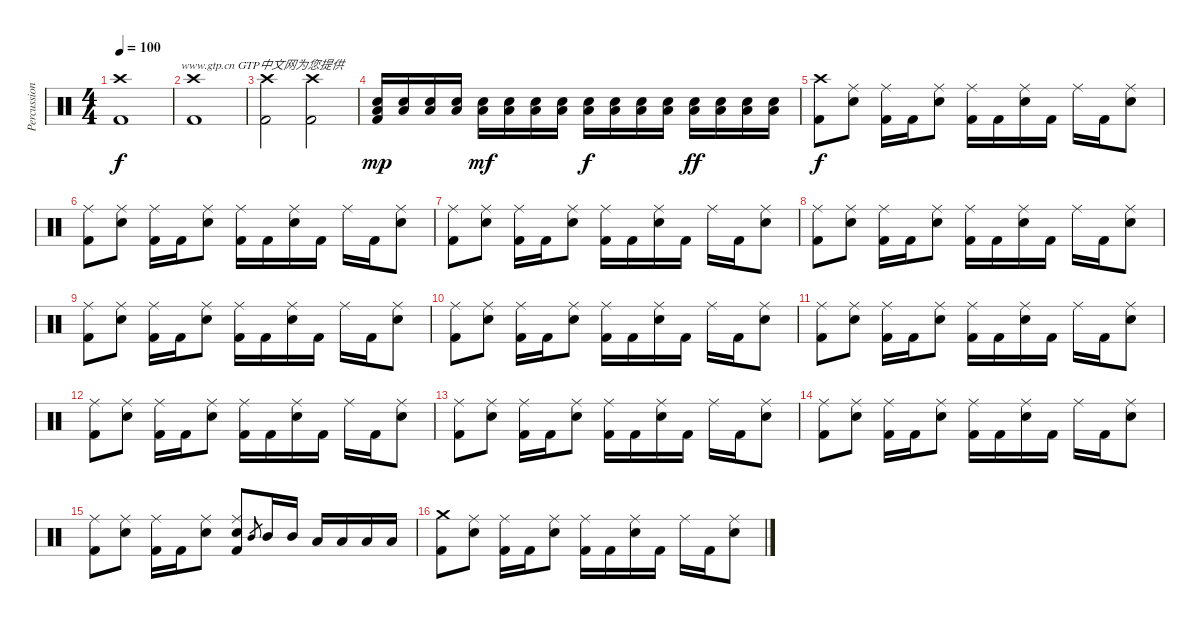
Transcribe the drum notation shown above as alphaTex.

\track ("Percussion" "Percussion") {instrument percussion}
\staff {score}
\articulation defaults
\ts (4 4)
\tempo 100
\clef neutral
\ks c
("Crash high (hit)" "Kick (hit) 2").1{txt "                    www.gtp.cn GTP中文网为您提供" dy f} |
("Crash high (hit)" "Kick (hit) 2").1 |
("Crash high (hit)" "Kick (hit) 2").2 ("Crash high (hit)" "Kick (hit) 2").2 |
("Snare (hit) 2" "Low Tom (hit)" "Kick (hit) 2").16{dy mp} ("Snare (hit) 2" "Low Tom (hit)").16 ("Snare (hit) 2" "Low Tom (hit)").16 ("Snare (hit) 2" "Low Tom (hit)").16 ("Snare (hit) 2" "Low Tom (hit)").16{dy mf} ("Snare (hit) 2" "Low Tom (hit)").16 ("Snare (hit) 2" "Low Tom (hit)").16 ("Snare (hit) 2" "Low Tom (hit)").16 ("Snare (hit) 2" "Low Tom (hit)").16{dy f} ("Snare (hit) 2" "Low Tom (hit)").16 ("Snare (hit) 2" "Low Tom (hit)").16 ("Snare (hit) 2" "Low Tom (hit)").16 ("Snare (hit) 2" "Low Tom (hit)").16{dy ff} ("Snare (hit) 2" "Low Tom (hit)").16 ("Snare (hit) 2" "Low Tom (hit)").16 ("Snare (hit) 2" "Low Tom (hit)").16 |
("Crash high (hit)" "Kick (hit) 2").8{dy f} ("Ride (middle)" "Electric Snare (hit)").8 ("Ride (middle)" "Kick (hit) 2").16 "Kick (hit) 2".16 ("Ride (middle)" "Electric Snare (hit)").8 ("Ride (middle)" "Kick (hit) 2").16 "Kick (hit) 2".16 ("Ride (middle)" "Electric Snare (hit)").16 "Kick (hit) 2".16 "Ride (middle)".16 "Kick (hit) 2".16 ("Ride (middle)" "Electric Snare (hit)").8 |
("Ride (middle)" "Kick (hit) 2").8 ("Ride (middle)" "Electric Snare (hit)").8 ("Ride (middle)" "Kick (hit) 2").16 "Kick (hit) 2".16 ("Ride (middle)" "Electric Snare (hit)").8 ("Ride (middle)" "Kick (hit) 2").16 "Kick (hit) 2".16 ("Ride (middle)" "Electric Snare (hit)").16 "Kick (hit) 2".16 "Ride (middle)".16 "Kick (hit) 2".16 ("Ride (middle)" "Electric Snare (hit)").8 |
("Ride (middle)" "Kick (hit) 2").8 ("Ride (middle)" "Electric Snare (hit)").8 ("Ride (middle)" "Kick (hit) 2").16 "Kick (hit) 2".16 ("Ride (middle)" "Electric Snare (hit)").8 ("Ride (middle)" "Kick (hit) 2").16 "Kick (hit) 2".16 ("Ride (middle)" "Electric Snare (hit)").16 "Kick (hit) 2".16 "Ride (middle)".16 "Kick (hit) 2".16 ("Ride (middle)" "Electric Snare (hit)").8 |
("Ride (middle)" "Kick (hit) 2").8 ("Ride (middle)" "Electric Snare (hit)").8 ("Ride (middle)" "Kick (hit) 2").16 "Kick (hit) 2".16 ("Ride (middle)" "Electric Snare (hit)").8 ("Ride (middle)" "Kick (hit) 2").16 "Kick (hit) 2".16 ("Ride (middle)" "Electric Snare (hit)").16 "Kick (hit) 2".16 "Ride (middle)".16 "Kick (hit) 2".16 ("Ride (middle)" "Electric Snare (hit)").8 |
("Ride (middle)" "Kick (hit) 2").8 ("Ride (middle)" "Electric Snare (hit)").8 ("Ride (middle)" "Kick (hit) 2").16 "Kick (hit) 2".16 ("Ride (middle)" "Electric Snare (hit)").8 ("Ride (middle)" "Kick (hit) 2").16 "Kick (hit) 2".16 ("Ride (middle)" "Electric Snare (hit)").16 "Kick (hit) 2".16 "Ride (middle)".16 "Kick (hit) 2".16 ("Ride (middle)" "Electric Snare (hit)").8 |
("Ride (middle)" "Kick (hit) 2").8 ("Ride (middle)" "Electric Snare (hit)").8 ("Ride (middle)" "Kick (hit) 2").16 "Kick (hit) 2".16 ("Ride (middle)" "Electric Snare (hit)").8 ("Ride (middle)" "Kick (hit) 2").16 "Kick (hit) 2".16 ("Ride (middle)" "Electric Snare (hit)").16 "Kick (hit) 2".16 "Ride (middle)".16 "Kick (hit) 2".16 ("Ride (middle)" "Electric Snare (hit)").8 |
("Ride (middle)" "Kick (hit) 2").8 ("Ride (middle)" "Electric Snare (hit)").8 ("Ride (middle)" "Kick (hit) 2").16 "Kick (hit) 2".16 ("Ride (middle)" "Electric Snare (hit)").8 ("Ride (middle)" "Kick (hit) 2").16 "Kick (hit) 2".16 ("Ride (middle)" "Electric Snare (hit)").16 "Kick (hit) 2".16 "Ride (middle)".16 "Kick (hit) 2".16 ("Ride (middle)" "Electric Snare (hit)").8 |
("Ride (middle)" "Kick (hit) 2").8 ("Ride (middle)" "Electric Snare (hit)").8 ("Ride (middle)" "Kick (hit) 2").16 "Kick (hit) 2".16 ("Ride (middle)" "Electric Snare (hit)").8 ("Ride (middle)" "Kick (hit) 2").16 "Kick (hit) 2".16 ("Ride (middle)" "Electric Snare (hit)").16 "Kick (hit) 2".16 "Ride (middle)".16 "Kick (hit) 2".16 ("Ride (middle)" "Electric Snare (hit)").8 |
("Ride (middle)" "Kick (hit) 2").8 ("Ride (middle)" "Electric Snare (hit)").8 ("Ride (middle)" "Kick (hit) 2").16 "Kick (hit) 2".16 ("Ride (middle)" "Electric Snare (hit)").8 ("Ride (middle)" "Kick (hit) 2").16 "Kick (hit) 2".16 ("Ride (middle)" "Electric Snare (hit)").16 "Kick (hit) 2".16 "Ride (middle)".16 "Kick (hit) 2".16 ("Ride (middle)" "Electric Snare (hit)").8 |
("Ride (middle)" "Kick (hit) 2").8 ("Ride (middle)" "Electric Snare (hit)").8 ("Ride (middle)" "Kick (hit) 2").16 "Kick (hit) 2".16 ("Ride (middle)" "Electric Snare (hit)").8 ("Ride (middle)" "Kick (hit) 2").16 "Kick (hit) 2".16 ("Ride (middle)" "Electric Snare (hit)").16 "Kick (hit) 2".16 "Ride (middle)".16 "Kick (hit) 2".16 ("Ride (middle)" "Electric Snare (hit)").8 |
("Ride (middle)" "Kick (hit) 2").8 ("Ride (middle)" "Electric Snare (hit)").8 ("Ride (middle)" "Kick (hit) 2").16 "Kick (hit) 2".16 ("Ride (middle)" "Electric Snare (hit)").8 ("Ride (middle)" "Electric Snare (hit)" "Kick (hit) 2").8 "Mid Tom (hit)".8{gr} "Mid Tom (hit)".16 "Mid Tom (hit)".16 "Low Tom (hit)".16 "Low Tom (hit)".16 "Low Tom (hit)".16 "Low Tom (hit)".16 |
("Crash medium (hit)" "Kick (hit) 2").8 ("Ride (middle)" "Electric Snare (hit)").8 ("Ride (middle)" "Kick (hit) 2").16 "Kick (hit) 2".16 ("Ride (middle)" "Electric Snare (hit)").8 ("Ride (middle)" "Kick (hit) 2").16 "Kick (hit) 2".16 ("Ride (middle)" "Electric Snare (hit)").16 "Kick (hit) 2".16 "Ride (middle)".16 "Kick (hit) 2".16 ("Ride (middle)" "Electric Snare (hit)").8
